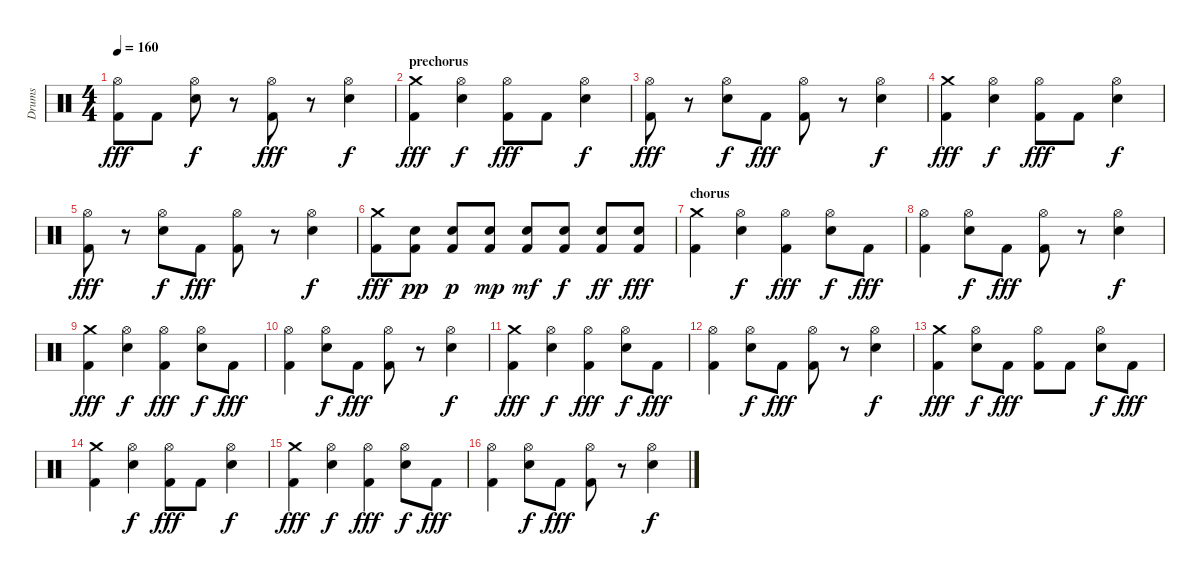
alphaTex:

\track ("Drums" "Drums") {instrument percussion}
\staff {score}
\articulation defaults
\ts (4 4)
\tempo 160
\clef neutral
\ks c
("Hi-Hat (open)" "Kick (hit) 2").8{dy fff} "Kick (hit) 2".8 ("Hi-Hat (open)" "Electric Snare (hit)").8{dy f} r.8 ("Hi-Hat (open)" "Kick (hit) 2").8{dy fff} r.8 ("Hi-Hat (open)" "Electric Snare (hit)").4{dy f} |
\section ("" "prechorus")
("Crash medium (hit)" "Kick (hit) 2").4{dy fff} ("Hi-Hat (open)" "Electric Snare (hit)").4{dy f} ("Hi-Hat (open)" "Kick (hit) 2").8{dy fff} "Kick (hit) 2".8 ("Hi-Hat (open)" "Electric Snare (hit)").4{dy f} |
("Hi-Hat (open)" "Kick (hit) 2").8{dy fff} r.8 ("Hi-Hat (open)" "Electric Snare (hit)").8{dy f} "Kick (hit) 2".8{dy fff} ("Hi-Hat (open)" "Kick (hit) 2").8 r.8 ("Hi-Hat (open)" "Electric Snare (hit)").4{dy f} |
("Crash medium (hit)" "Kick (hit) 2").4{dy fff} ("Hi-Hat (open)" "Electric Snare (hit)").4{dy f} ("Hi-Hat (open)" "Kick (hit) 2").8{dy fff} "Kick (hit) 2".8 ("Hi-Hat (open)" "Electric Snare (hit)").4{dy f} |
("Hi-Hat (open)" "Kick (hit) 2").8{dy fff} r.8 ("Hi-Hat (open)" "Electric Snare (hit)").8{dy f} "Kick (hit) 2".8{dy fff} ("Hi-Hat (open)" "Kick (hit) 2").8 r.8 ("Hi-Hat (open)" "Electric Snare (hit)").4{dy f} |
("Crash medium (hit)" "Kick (hit) 2").8{dy fff} ("Electric Snare (hit)" "Kick (hit) 2").8{dy pp} ("Electric Snare (hit)" "Kick (hit) 2").8{dy p} ("Electric Snare (hit)" "Kick (hit) 2").8{dy mp} ("Electric Snare (hit)" "Kick (hit) 2").8{dy mf} ("Electric Snare (hit)" "Kick (hit) 2").8{dy f} ("Electric Snare (hit)" "Kick (hit) 2").8{dy ff} ("Electric Snare (hit)" "Kick (hit) 2").8{dy fff} |
\section ("" "chorus")
("Crash medium (hit)" "Kick (hit) 2").4 ("Hi-Hat (open)" "Electric Snare (hit)").4{dy f} ("Hi-Hat (open)" "Kick (hit) 2").4{dy fff} ("Hi-Hat (open)" "Electric Snare (hit)").8{dy f} "Kick (hit) 2".8{dy fff} |
("Hi-Hat (open)" "Kick (hit) 2").4 ("Hi-Hat (open)" "Electric Snare (hit)").8{dy f} "Kick (hit) 2".8{dy fff} ("Hi-Hat (open)" "Kick (hit) 2").8 r.8 ("Hi-Hat (open)" "Electric Snare (hit)").4{dy f} |
("Crash medium (hit)" "Kick (hit) 2").4{dy fff} ("Hi-Hat (open)" "Electric Snare (hit)").4{dy f} ("Hi-Hat (open)" "Kick (hit) 2").4{dy fff} ("Hi-Hat (open)" "Electric Snare (hit)").8{dy f} "Kick (hit) 2".8{dy fff} |
("Hi-Hat (open)" "Kick (hit) 2").4 ("Hi-Hat (open)" "Electric Snare (hit)").8{dy f} "Kick (hit) 2".8{dy fff} ("Hi-Hat (open)" "Kick (hit) 2").8 r.8 ("Hi-Hat (open)" "Electric Snare (hit)").4{dy f} |
("Crash medium (hit)" "Kick (hit) 2").4{dy fff} ("Hi-Hat (open)" "Electric Snare (hit)").4{dy f} ("Hi-Hat (open)" "Kick (hit) 2").4{dy fff} ("Hi-Hat (open)" "Electric Snare (hit)").8{dy f} "Kick (hit) 2".8{dy fff} |
("Hi-Hat (open)" "Kick (hit) 2").4 ("Hi-Hat (open)" "Electric Snare (hit)").8{dy f} "Kick (hit) 2".8{dy fff} ("Hi-Hat (open)" "Kick (hit) 2").8 r.8 ("Hi-Hat (open)" "Electric Snare (hit)").4{dy f} |
("Crash medium (hit)" "Kick (hit) 2").4{dy fff} ("Hi-Hat (open)" "Electric Snare (hit)").8{dy f} "Kick (hit) 2".8{dy fff} ("Hi-Hat (open)" "Kick (hit) 2").8 "Kick (hit) 2".8 ("Hi-Hat (open)" "Electric Snare (hit)").8{dy f} "Kick (hit) 2".8{dy fff} |
("Crash medium (hit)" "Kick (hit) 2").4 ("Hi-Hat (open)" "Electric Snare (hit)").4{dy f} ("Hi-Hat (open)" "Kick (hit) 2").8{dy fff} "Kick (hit) 2".8 ("Hi-Hat (open)" "Electric Snare (hit)").4{dy f} |
("Crash medium (hit)" "Kick (hit) 2").4{dy fff} ("Hi-Hat (open)" "Electric Snare (hit)").4{dy f} ("Hi-Hat (open)" "Kick (hit) 2").4{dy fff} ("Hi-Hat (open)" "Electric Snare (hit)").8{dy f} "Kick (hit) 2".8{dy fff} |
("Hi-Hat (open)" "Kick (hit) 2").4 ("Hi-Hat (open)" "Electric Snare (hit)").8{dy f} "Kick (hit) 2".8{dy fff} ("Hi-Hat (open)" "Kick (hit) 2").8 r.8 ("Hi-Hat (open)" "Electric Snare (hit)").4{dy f}
